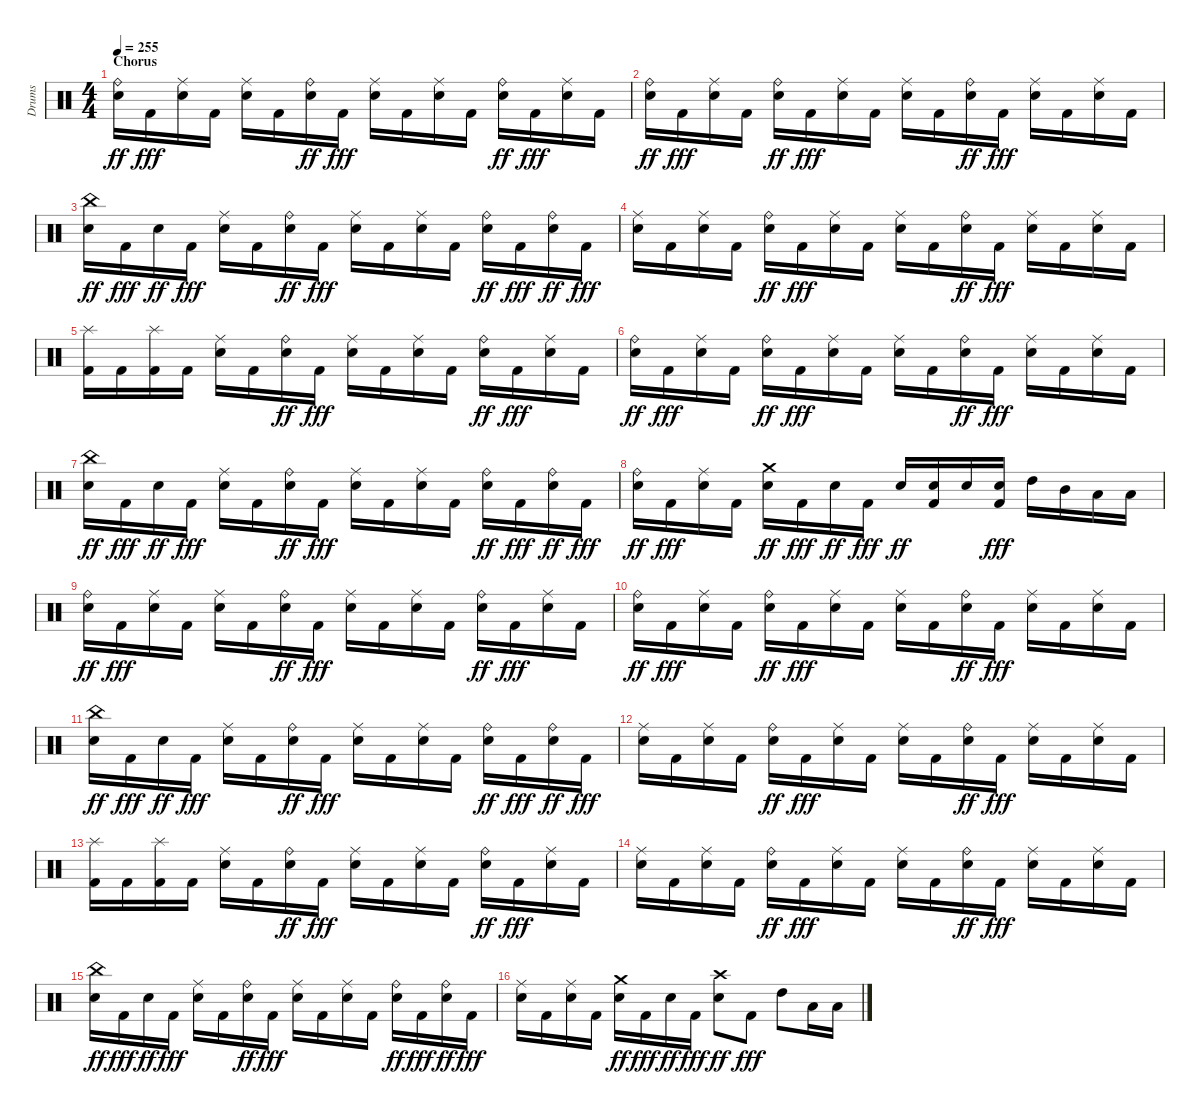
\track ("Drums" "Drums") {instrument percussion}
\staff {score}
\articulation defaults
\ts (4 4)
\section ("" "Chorus")
\tempo 255
\clef neutral
\ks c
("Snare (hit) 2" "Ride (bell)").16{dy ff} "Kick (hit) 2".16{dy fff} ("Snare (hit) 2" "Ride (middle)").16 "Kick (hit) 2".16 ("Snare (hit) 2" "Ride (middle)").16 "Kick (hit) 2".16 ("Snare (hit) 2" "Ride (bell)").16{dy ff} "Kick (hit) 2".16{dy fff} ("Snare (hit) 2" "Ride (middle)").16 "Kick (hit) 2".16 ("Snare (hit) 2" "Ride (middle)").16 "Kick (hit) 2".16 ("Snare (hit) 2" "Ride (bell)").16{dy ff} "Kick (hit) 2".16{dy fff} ("Snare (hit) 2" "Ride (middle)").16 "Kick (hit) 2".16 |
("Snare (hit) 2" "Ride (bell)").16{dy ff} "Kick (hit) 2".16{dy fff} ("Snare (hit) 2" "Ride (middle)").16 "Kick (hit) 2".16 ("Snare (hit) 2" "Ride (bell)").16{dy ff} "Kick (hit) 2".16{dy fff} ("Snare (hit) 2" "Ride (middle)").16 "Kick (hit) 2".16 ("Snare (hit) 2" "Ride (middle)").16 "Kick (hit) 2".16 ("Snare (hit) 2" "Ride (bell)").16{dy ff} "Kick (hit) 2".16{dy fff} ("Snare (hit) 2" "Ride (middle)").16 "Kick (hit) 2".16 ("Snare (hit) 2" "Ride (middle)").16 "Kick (hit) 2".16 |
("Snare (hit) 2" "China (hit)").16{dy ff} "Kick (hit) 2".16{dy fff} "Snare (hit) 2".16{dy ff} "Kick (hit) 2".16{dy fff} ("Snare (hit) 2" "Ride (middle)").16 "Kick (hit) 2".16 ("Snare (hit) 2" "Ride (bell)").16{dy ff} "Kick (hit) 2".16{dy fff} ("Snare (hit) 2" "Ride (middle)").16 "Kick (hit) 2".16 ("Snare (hit) 2" "Ride (middle)").16 "Kick (hit) 2".16 ("Snare (hit) 2" "Ride (bell)").16{dy ff} "Kick (hit) 2".16{dy fff} ("Snare (hit) 2" "Ride (bell)").16{dy ff} "Kick (hit) 2".16{dy fff} |
("Snare (hit) 2" "Ride (middle)").16 "Kick (hit) 2".16 ("Snare (hit) 2" "Ride (middle)").16 "Kick (hit) 2".16 ("Snare (hit) 2" "Ride (bell)").16{dy ff} "Kick (hit) 2".16{dy fff} ("Snare (hit) 2" "Ride (middle)").16 "Kick (hit) 2".16 ("Snare (hit) 2" "Ride (middle)").16 "Kick (hit) 2".16 ("Snare (hit) 2" "Ride (bell)").16{dy ff} "Kick (hit) 2".16{dy fff} ("Snare (hit) 2" "Ride (middle)").16 "Kick (hit) 2".16 ("Snare (hit) 2" "Ride (middle)").16 "Kick (hit) 2".16 |
("Kick (hit) 2" "Splash (hit)").16 "Kick (hit) 2".16 ("Kick (hit) 2" "Splash (hit)").16 "Kick (hit) 2".16 ("Snare (hit) 2" "Ride (middle)").16 "Kick (hit) 2".16 ("Snare (hit) 2" "Ride (bell)").16{dy ff} "Kick (hit) 2".16{dy fff} ("Snare (hit) 2" "Ride (middle)").16 "Kick (hit) 2".16 ("Snare (hit) 2" "Ride (middle)").16 "Kick (hit) 2".16 ("Snare (hit) 2" "Ride (bell)").16{dy ff} "Kick (hit) 2".16{dy fff} ("Snare (hit) 2" "Ride (middle)").16 "Kick (hit) 2".16 |
("Snare (hit) 2" "Ride (bell)").16{dy ff} "Kick (hit) 2".16{dy fff} ("Snare (hit) 2" "Ride (middle)").16 "Kick (hit) 2".16 ("Snare (hit) 2" "Ride (bell)").16{dy ff} "Kick (hit) 2".16{dy fff} ("Snare (hit) 2" "Ride (middle)").16 "Kick (hit) 2".16 ("Snare (hit) 2" "Ride (middle)").16 "Kick (hit) 2".16 ("Snare (hit) 2" "Ride (bell)").16{dy ff} "Kick (hit) 2".16{dy fff} ("Snare (hit) 2" "Ride (middle)").16 "Kick (hit) 2".16 ("Snare (hit) 2" "Ride (middle)").16 "Kick (hit) 2".16 |
("Snare (hit) 2" "China (hit)").16{dy ff} "Kick (hit) 2".16{dy fff} "Snare (hit) 2".16{dy ff} "Kick (hit) 2".16{dy fff} ("Snare (hit) 2" "Ride (middle)").16 "Kick (hit) 2".16 ("Snare (hit) 2" "Ride (bell)").16{dy ff} "Kick (hit) 2".16{dy fff} ("Snare (hit) 2" "Ride (middle)").16 "Kick (hit) 2".16 ("Snare (hit) 2" "Ride (middle)").16 "Kick (hit) 2".16 ("Snare (hit) 2" "Ride (bell)").16{dy ff} "Kick (hit) 2".16{dy fff} ("Snare (hit) 2" "Ride (bell)").16{dy ff} "Kick (hit) 2".16{dy fff} |
("Snare (hit) 2" "Ride (bell)").16{dy ff} "Kick (hit) 2".16{dy fff} ("Snare (hit) 2" "Ride (middle)").16 "Kick (hit) 2".16 ("Snare (hit) 2" "Crash medium (hit)").16{dy ff} "Kick (hit) 2".16{dy fff} "Snare (hit) 2".16{dy ff} "Kick (hit) 2".16{dy fff} "Snare (hit) 2".16{dy ff} ("Kick (hit) 2" "Snare (hit) 2").16 "Snare (hit) 2".16 ("Kick (hit) 2" "Snare (hit) 2").16{dy fff} "High Tom (hit)".16 "Mid Tom (hit)".16 "Low Tom (hit)".16 "Low Tom (hit)".16 |
("Snare (hit) 2" "Ride (bell)").16{dy ff} "Kick (hit) 2".16{dy fff} ("Snare (hit) 2" "Ride (middle)").16 "Kick (hit) 2".16 ("Snare (hit) 2" "Ride (middle)").16 "Kick (hit) 2".16 ("Snare (hit) 2" "Ride (bell)").16{dy ff} "Kick (hit) 2".16{dy fff} ("Snare (hit) 2" "Ride (middle)").16 "Kick (hit) 2".16 ("Snare (hit) 2" "Ride (middle)").16 "Kick (hit) 2".16 ("Snare (hit) 2" "Ride (bell)").16{dy ff} "Kick (hit) 2".16{dy fff} ("Snare (hit) 2" "Ride (middle)").16 "Kick (hit) 2".16 |
("Snare (hit) 2" "Ride (bell)").16{dy ff} "Kick (hit) 2".16{dy fff} ("Snare (hit) 2" "Ride (middle)").16 "Kick (hit) 2".16 ("Snare (hit) 2" "Ride (bell)").16{dy ff} "Kick (hit) 2".16{dy fff} ("Snare (hit) 2" "Ride (middle)").16 "Kick (hit) 2".16 ("Snare (hit) 2" "Ride (middle)").16 "Kick (hit) 2".16 ("Snare (hit) 2" "Ride (bell)").16{dy ff} "Kick (hit) 2".16{dy fff} ("Snare (hit) 2" "Ride (middle)").16 "Kick (hit) 2".16 ("Snare (hit) 2" "Ride (middle)").16 "Kick (hit) 2".16 |
("Snare (hit) 2" "China (hit)").16{dy ff} "Kick (hit) 2".16{dy fff} "Snare (hit) 2".16{dy ff} "Kick (hit) 2".16{dy fff} ("Snare (hit) 2" "Ride (middle)").16 "Kick (hit) 2".16 ("Snare (hit) 2" "Ride (bell)").16{dy ff} "Kick (hit) 2".16{dy fff} ("Snare (hit) 2" "Ride (middle)").16 "Kick (hit) 2".16 ("Snare (hit) 2" "Ride (middle)").16 "Kick (hit) 2".16 ("Snare (hit) 2" "Ride (bell)").16{dy ff} "Kick (hit) 2".16{dy fff} ("Snare (hit) 2" "Ride (bell)").16{dy ff} "Kick (hit) 2".16{dy fff} |
("Snare (hit) 2" "Ride (middle)").16 "Kick (hit) 2".16 ("Snare (hit) 2" "Ride (middle)").16 "Kick (hit) 2".16 ("Snare (hit) 2" "Ride (bell)").16{dy ff} "Kick (hit) 2".16{dy fff} ("Snare (hit) 2" "Ride (middle)").16 "Kick (hit) 2".16 ("Snare (hit) 2" "Ride (middle)").16 "Kick (hit) 2".16 ("Snare (hit) 2" "Ride (bell)").16{dy ff} "Kick (hit) 2".16{dy fff} ("Snare (hit) 2" "Ride (middle)").16 "Kick (hit) 2".16 ("Snare (hit) 2" "Ride (middle)").16 "Kick (hit) 2".16 |
("Kick (hit) 2" "Splash (hit)").16 "Kick (hit) 2".16 ("Kick (hit) 2" "Splash (hit)").16 "Kick (hit) 2".16 ("Snare (hit) 2" "Ride (middle)").16 "Kick (hit) 2".16 ("Snare (hit) 2" "Ride (bell)").16{dy ff} "Kick (hit) 2".16{dy fff} ("Snare (hit) 2" "Ride (middle)").16 "Kick (hit) 2".16 ("Snare (hit) 2" "Ride (middle)").16 "Kick (hit) 2".16 ("Snare (hit) 2" "Ride (bell)").16{dy ff} "Kick (hit) 2".16{dy fff} ("Snare (hit) 2" "Ride (middle)").16 "Kick (hit) 2".16 |
("Snare (hit) 2" "Ride (middle)").16 "Kick (hit) 2".16 ("Snare (hit) 2" "Ride (middle)").16 "Kick (hit) 2".16 ("Snare (hit) 2" "Ride (bell)").16{dy ff} "Kick (hit) 2".16{dy fff} ("Snare (hit) 2" "Ride (middle)").16 "Kick (hit) 2".16 ("Snare (hit) 2" "Ride (middle)").16 "Kick (hit) 2".16 ("Snare (hit) 2" "Ride (bell)").16{dy ff} "Kick (hit) 2".16{dy fff} ("Snare (hit) 2" "Ride (middle)").16 "Kick (hit) 2".16 ("Snare (hit) 2" "Ride (middle)").16 "Kick (hit) 2".16 |
("Snare (hit) 2" "China (hit)").16{dy ff} "Kick (hit) 2".16{dy fff} "Snare (hit) 2".16{dy ff} "Kick (hit) 2".16{dy fff} ("Snare (hit) 2" "Ride (middle)").16 "Kick (hit) 2".16 ("Snare (hit) 2" "Ride (bell)").16{dy ff} "Kick (hit) 2".16{dy fff} ("Snare (hit) 2" "Ride (middle)").16 "Kick (hit) 2".16 ("Snare (hit) 2" "Ride (middle)").16 "Kick (hit) 2".16 ("Snare (hit) 2" "Ride (bell)").16{dy ff} "Kick (hit) 2".16{dy fff} ("Snare (hit) 2" "Ride (bell)").16{dy ff} "Kick (hit) 2".16{dy fff} |
("Snare (hit) 2" "Ride (middle)").16 "Kick (hit) 2".16 ("Snare (hit) 2" "Ride (middle)").16 "Kick (hit) 2".16 ("Snare (hit) 2" "Crash medium (hit)").16{dy ff} "Kick (hit) 2".16{dy fff} "Snare (hit) 2".16{dy ff} "Kick (hit) 2".16{dy fff} ("Snare (hit) 2" "Crash high (hit)").8{dy ff} "Kick (hit) 2".8{dy fff} "High Tom (hit)".8 "Low Tom (hit)".16 "Low Tom (hit)".16
